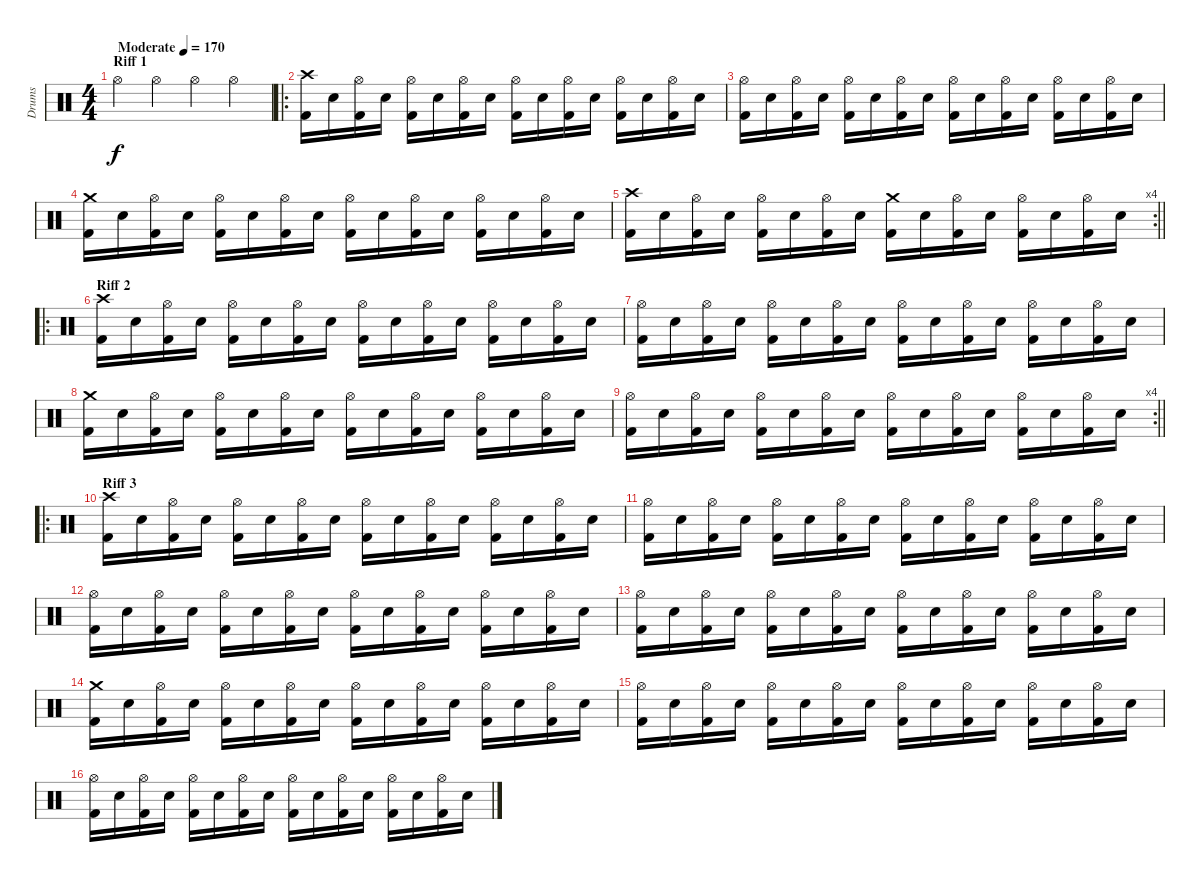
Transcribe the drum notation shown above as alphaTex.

\track ("Drums" "Drums") {instrument percussion}
\staff {score}
\articulation defaults
\ts (4 4)
\section ("" "Riff 1")
\tempo (170 "Moderate")
\clef neutral
\ks c "Hi-Hat (open)".4{dy f} "Hi-Hat (open)".4 "Hi-Hat (open)".4 "Hi-Hat (open)".4
|
\ro
("Crash high (hit)" "Kick (hit) 2").16 "Electric Snare (hit)".16 ("Hi-Hat (open)" "Kick (hit) 2").16 "Electric Snare (hit)".16 ("Hi-Hat (open)" "Kick (hit) 2").16 "Electric Snare (hit)".16 ("Hi-Hat (open)" "Kick (hit) 2").16 "Electric Snare (hit)".16 ("Hi-Hat (open)" "Kick (hit) 2").16 "Electric Snare (hit)".16 ("Hi-Hat (open)" "Kick (hit) 2").16 "Electric Snare (hit)".16 ("Hi-Hat (open)" "Kick (hit) 2").16 "Electric Snare (hit)".16 ("Hi-Hat (open)" "Kick (hit) 2").16 "Electric Snare (hit)".16 |
("Hi-Hat (open)" "Kick (hit) 2").16 "Electric Snare (hit)".16 ("Hi-Hat (open)" "Kick (hit) 2").16 "Electric Snare (hit)".16 ("Hi-Hat (open)" "Kick (hit) 2").16 "Electric Snare (hit)".16 ("Hi-Hat (open)" "Kick (hit) 2").16 "Electric Snare (hit)".16 ("Hi-Hat (open)" "Kick (hit) 2").16 "Electric Snare (hit)".16 ("Hi-Hat (open)" "Kick (hit) 2").16 "Electric Snare (hit)".16 ("Hi-Hat (open)" "Kick (hit) 2").16 "Electric Snare (hit)".16 ("Hi-Hat (open)" "Kick (hit) 2").16 "Electric Snare (hit)".16 |
("Crash medium (hit)" "Kick (hit) 2").16 "Electric Snare (hit)".16 ("Hi-Hat (open)" "Kick (hit) 2").16 "Electric Snare (hit)".16 ("Hi-Hat (open)" "Kick (hit) 2").16 "Electric Snare (hit)".16 ("Hi-Hat (open)" "Kick (hit) 2").16 "Electric Snare (hit)".16 ("Hi-Hat (open)" "Kick (hit) 2").16 "Electric Snare (hit)".16 ("Hi-Hat (open)" "Kick (hit) 2").16 "Electric Snare (hit)".16 ("Hi-Hat (open)" "Kick (hit) 2").16 "Electric Snare (hit)".16 ("Hi-Hat (open)" "Kick (hit) 2").16 "Electric Snare (hit)".16 |
\rc 4
\barLineRight lightlight
("Crash high (hit)" "Kick (hit) 2").16 "Electric Snare (hit)".16 ("Hi-Hat (open)" "Kick (hit) 2").16 "Electric Snare (hit)".16 ("Hi-Hat (open)" "Kick (hit) 2").16 "Electric Snare (hit)".16 ("Hi-Hat (open)" "Kick (hit) 2").16 "Electric Snare (hit)".16 ("Crash medium (hit)" "Kick (hit) 2").16 "Electric Snare (hit)".16 ("Hi-Hat (open)" "Kick (hit) 2").16 "Electric Snare (hit)".16 ("Hi-Hat (open)" "Kick (hit) 2").16 "Electric Snare (hit)".16 ("Hi-Hat (open)" "Kick (hit) 2").16 "Electric Snare (hit)".16 |
\ro
\section ("" "Riff 2")
("Crash high (hit)" "Kick (hit) 2").16 "Electric Snare (hit)".16 ("Hi-Hat (open)" "Kick (hit) 2").16 "Electric Snare (hit)".16 ("Hi-Hat (open)" "Kick (hit) 2").16 "Electric Snare (hit)".16 ("Hi-Hat (open)" "Kick (hit) 2").16 "Electric Snare (hit)".16 ("Hi-Hat (open)" "Kick (hit) 2").16 "Electric Snare (hit)".16 ("Hi-Hat (open)" "Kick (hit) 2").16 "Electric Snare (hit)".16 ("Hi-Hat (open)" "Kick (hit) 2").16 "Electric Snare (hit)".16 ("Hi-Hat (open)" "Kick (hit) 2").16 "Electric Snare (hit)".16 |
("Hi-Hat (open)" "Kick (hit) 2").16 "Electric Snare (hit)".16 ("Hi-Hat (open)" "Kick (hit) 2").16 "Electric Snare (hit)".16 ("Hi-Hat (open)" "Kick (hit) 2").16 "Electric Snare (hit)".16 ("Hi-Hat (open)" "Kick (hit) 2").16 "Electric Snare (hit)".16 ("Hi-Hat (open)" "Kick (hit) 2").16 "Electric Snare (hit)".16 ("Hi-Hat (open)" "Kick (hit) 2").16 "Electric Snare (hit)".16 ("Hi-Hat (open)" "Kick (hit) 2").16 "Electric Snare (hit)".16 ("Hi-Hat (open)" "Kick (hit) 2").16 "Electric Snare (hit)".16 |
("Crash medium (hit)" "Kick (hit) 2").16 "Electric Snare (hit)".16 ("Hi-Hat (open)" "Kick (hit) 2").16 "Electric Snare (hit)".16 ("Hi-Hat (open)" "Kick (hit) 2").16 "Electric Snare (hit)".16 ("Hi-Hat (open)" "Kick (hit) 2").16 "Electric Snare (hit)".16 ("Hi-Hat (open)" "Kick (hit) 2").16 "Electric Snare (hit)".16 ("Hi-Hat (open)" "Kick (hit) 2").16 "Electric Snare (hit)".16 ("Hi-Hat (open)" "Kick (hit) 2").16 "Electric Snare (hit)".16 ("Hi-Hat (open)" "Kick (hit) 2").16 "Electric Snare (hit)".16 |
\rc 4
\barLineRight lightlight
("Hi-Hat (open)" "Kick (hit) 2").16 "Electric Snare (hit)".16 ("Hi-Hat (open)" "Kick (hit) 2").16 "Electric Snare (hit)".16 ("Hi-Hat (open)" "Kick (hit) 2").16 "Electric Snare (hit)".16 ("Hi-Hat (open)" "Kick (hit) 2").16 "Electric Snare (hit)".16 ("Hi-Hat (open)" "Kick (hit) 2").16 "Electric Snare (hit)".16 ("Hi-Hat (open)" "Kick (hit) 2").16 "Electric Snare (hit)".16 ("Hi-Hat (open)" "Kick (hit) 2").16 "Electric Snare (hit)".16 ("Hi-Hat (open)" "Kick (hit) 2").16 "Electric Snare (hit)".16 |
\ro
\section ("" "Riff 3")
("Crash high (hit)" "Kick (hit) 2").16 "Electric Snare (hit)".16 ("Hi-Hat (open)" "Kick (hit) 2").16 "Electric Snare (hit)".16 ("Hi-Hat (open)" "Kick (hit) 2").16 "Electric Snare (hit)".16 ("Hi-Hat (open)" "Kick (hit) 2").16 "Electric Snare (hit)".16 ("Hi-Hat (open)" "Kick (hit) 2").16 "Electric Snare (hit)".16 ("Hi-Hat (open)" "Kick (hit) 2").16 "Electric Snare (hit)".16 ("Hi-Hat (open)" "Kick (hit) 2").16 "Electric Snare (hit)".16 ("Hi-Hat (open)" "Kick (hit) 2").16 "Electric Snare (hit)".16 |
("Hi-Hat (open)" "Kick (hit) 2").16 "Electric Snare (hit)".16 ("Hi-Hat (open)" "Kick (hit) 2").16 "Electric Snare (hit)".16 ("Hi-Hat (open)" "Kick (hit) 2").16 "Electric Snare (hit)".16 ("Hi-Hat (open)" "Kick (hit) 2").16 "Electric Snare (hit)".16 ("Hi-Hat (open)" "Kick (hit) 2").16 "Electric Snare (hit)".16 ("Hi-Hat (open)" "Kick (hit) 2").16 "Electric Snare (hit)".16 ("Hi-Hat (open)" "Kick (hit) 2").16 "Electric Snare (hit)".16 ("Hi-Hat (open)" "Kick (hit) 2").16 "Electric Snare (hit)".16 |
("Hi-Hat (open)" "Kick (hit) 2").16 "Electric Snare (hit)".16 ("Hi-Hat (open)" "Kick (hit) 2").16 "Electric Snare (hit)".16 ("Hi-Hat (open)" "Kick (hit) 2").16 "Electric Snare (hit)".16 ("Hi-Hat (open)" "Kick (hit) 2").16 "Electric Snare (hit)".16 ("Hi-Hat (open)" "Kick (hit) 2").16 "Electric Snare (hit)".16 ("Hi-Hat (open)" "Kick (hit) 2").16 "Electric Snare (hit)".16 ("Hi-Hat (open)" "Kick (hit) 2").16 "Electric Snare (hit)".16 ("Hi-Hat (open)" "Kick (hit) 2").16 "Electric Snare (hit)".16 |
("Hi-Hat (open)" "Kick (hit) 2").16 "Electric Snare (hit)".16 ("Hi-Hat (open)" "Kick (hit) 2").16 "Electric Snare (hit)".16 ("Hi-Hat (open)" "Kick (hit) 2").16 "Electric Snare (hit)".16 ("Hi-Hat (open)" "Kick (hit) 2").16 "Electric Snare (hit)".16 ("Hi-Hat (open)" "Kick (hit) 2").16 "Electric Snare (hit)".16 ("Hi-Hat (open)" "Kick (hit) 2").16 "Electric Snare (hit)".16 ("Hi-Hat (open)" "Kick (hit) 2").16 "Electric Snare (hit)".16 ("Hi-Hat (open)" "Kick (hit) 2").16 "Electric Snare (hit)".16 |
("Crash medium (hit)" "Kick (hit) 2").16 "Electric Snare (hit)".16 ("Hi-Hat (open)" "Kick (hit) 2").16 "Electric Snare (hit)".16 ("Hi-Hat (open)" "Kick (hit) 2").16 "Electric Snare (hit)".16 ("Hi-Hat (open)" "Kick (hit) 2").16 "Electric Snare (hit)".16 ("Hi-Hat (open)" "Kick (hit) 2").16 "Electric Snare (hit)".16 ("Hi-Hat (open)" "Kick (hit) 2").16 "Electric Snare (hit)".16 ("Hi-Hat (open)" "Kick (hit) 2").16 "Electric Snare (hit)".16 ("Hi-Hat (open)" "Kick (hit) 2").16 "Electric Snare (hit)".16 |
("Hi-Hat (open)" "Kick (hit) 2").16 "Electric Snare (hit)".16 ("Hi-Hat (open)" "Kick (hit) 2").16 "Electric Snare (hit)".16 ("Hi-Hat (open)" "Kick (hit) 2").16 "Electric Snare (hit)".16 ("Hi-Hat (open)" "Kick (hit) 2").16 "Electric Snare (hit)".16 ("Hi-Hat (open)" "Kick (hit) 2").16 "Electric Snare (hit)".16 ("Hi-Hat (open)" "Kick (hit) 2").16 "Electric Snare (hit)".16 ("Hi-Hat (open)" "Kick (hit) 2").16 "Electric Snare (hit)".16 ("Hi-Hat (open)" "Kick (hit) 2").16 "Electric Snare (hit)".16 |
("Hi-Hat (open)" "Kick (hit) 2").16 "Electric Snare (hit)".16 ("Hi-Hat (open)" "Kick (hit) 2").16 "Electric Snare (hit)".16 ("Hi-Hat (open)" "Kick (hit) 2").16 "Electric Snare (hit)".16 ("Hi-Hat (open)" "Kick (hit) 2").16 "Electric Snare (hit)".16 ("Hi-Hat (open)" "Kick (hit) 2").16 "Electric Snare (hit)".16 ("Hi-Hat (open)" "Kick (hit) 2").16 "Electric Snare (hit)".16 ("Hi-Hat (open)" "Kick (hit) 2").16 "Electric Snare (hit)".16 ("Hi-Hat (open)" "Kick (hit) 2").16 "Electric Snare (hit)".16
